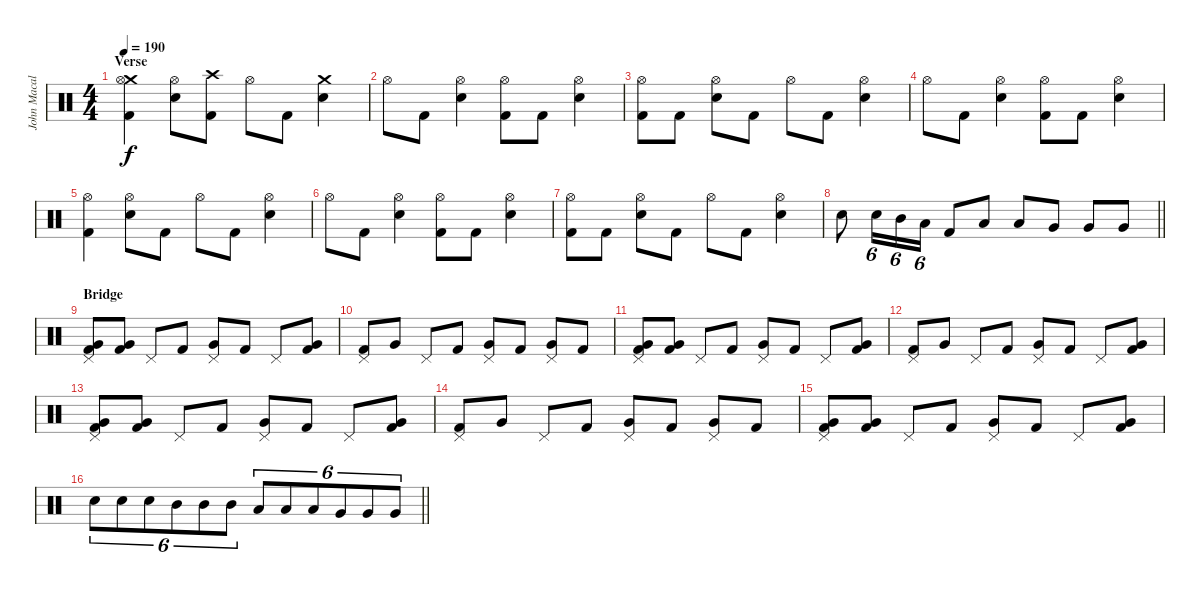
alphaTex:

\track ("John Macaluso" "John Macal") {instrument percussion}
\staff {score}
\articulation defaults
\ts (4 4)
\section ("" "Verse")
\tempo 190
\clef neutral
\ks c
("Crash medium (hit)" "Hi-Hat (open)" "Kick (hit) 2").4{dy f} ("Hi-Hat (open)" "Snare (hit) 2").8 ("Crash high (hit)" "Kick (hit) 2").8 "Hi-Hat (open)".8 "Kick (hit) 2".8 ("Crash medium (hit)" "Snare (hit) 2").4 |
"Hi-Hat (open)".8 "Kick (hit) 2".8 ("Hi-Hat (open)" "Snare (hit) 2").4 ("Hi-Hat (open)" "Kick (hit) 2").8 "Kick (hit) 2".8 ("Hi-Hat (open)" "Snare (hit) 2").4 |
("Hi-Hat (open)" "Kick (hit) 2").8 "Kick (hit) 2".8 ("Hi-Hat (open)" "Snare (hit) 2").8 "Kick (hit) 2".8 "Hi-Hat (open)".8 "Kick (hit) 2".8 ("Hi-Hat (open)" "Snare (hit) 2").4 |
"Hi-Hat (open)".8 "Kick (hit) 2".8 ("Hi-Hat (open)" "Snare (hit) 2").4 ("Hi-Hat (open)" "Kick (hit) 2").8 "Kick (hit) 2".8 ("Hi-Hat (open)" "Snare (hit) 2").4 |
("Hi-Hat (open)" "Kick (hit) 2").4 ("Hi-Hat (open)" "Snare (hit) 2").8 "Kick (hit) 2".8 "Hi-Hat (open)".8 "Kick (hit) 2".8 ("Hi-Hat (open)" "Snare (hit) 2").4 |
"Hi-Hat (open)".8 "Kick (hit) 2".8 ("Hi-Hat (open)" "Snare (hit) 2").4 ("Hi-Hat (open)" "Kick (hit) 2").8 "Kick (hit) 2".8 ("Hi-Hat (open)" "Snare (hit) 2").4 |
("Hi-Hat (open)" "Kick (hit) 2").8 "Kick (hit) 2".8 ("Hi-Hat (open)" "Snare (hit) 2").8 "Kick (hit) 2".8 "Hi-Hat (open)".8 "Kick (hit) 2".8 ("Hi-Hat (open)" "Snare (hit) 2").4 |
\barLineRight lightlight "Snare (hit) 2".8 "Snare (hit) 2".16{tu (6 4)} "Mid Tom (hit)".16{tu (6 4)} "Low Tom (hit)".16{tu (6 4)} "Kick (hit) 2".8 "Low Tom (hit)".8 "Low Tom (hit)".8 "Very Low Tom (hit)".8 "Very Low Tom (hit)".8 "Very Low Tom (hit)".8
|
\section ("" "Bridge")
("Pedal Hi-Hat (hit)" "Very Low Tom (hit)" "Kick (hit) 2").8 ("Very Low Tom (hit)" "Kick (hit) 2").8 "Pedal Hi-Hat (hit)".8 "Kick (hit) 2".8 ("Pedal Hi-Hat (hit)" "Very Low Tom (hit)").8 "Kick (hit) 2".8 "Pedal Hi-Hat (hit)".8 ("Very Low Tom (hit)" "Kick (hit) 2").8 |
("Pedal Hi-Hat (hit)" "Kick (hit) 2").8 "Very Low Tom (hit)".8 "Pedal Hi-Hat (hit)".8 "Kick (hit) 2".8 ("Pedal Hi-Hat (hit)" "Very Low Tom (hit)").8 "Kick (hit) 2".8 ("Pedal Hi-Hat (hit)" "Very Low Tom (hit)").8 "Kick (hit) 2".8 |
("Pedal Hi-Hat (hit)" "Very Low Tom (hit)" "Kick (hit) 2").8 ("Very Low Tom (hit)" "Kick (hit) 2").8 "Pedal Hi-Hat (hit)".8 "Kick (hit) 2".8 ("Pedal Hi-Hat (hit)" "Very Low Tom (hit)").8 "Kick (hit) 2".8 "Pedal Hi-Hat (hit)".8 ("Very Low Tom (hit)" "Kick (hit) 2").8 |
("Pedal Hi-Hat (hit)" "Kick (hit) 2").8 "Very Low Tom (hit)".8 "Pedal Hi-Hat (hit)".8 "Kick (hit) 2".8 ("Pedal Hi-Hat (hit)" "Very Low Tom (hit)").8 "Kick (hit) 2".8 "Pedal Hi-Hat (hit)".8 ("Very Low Tom (hit)" "Kick (hit) 2").8 |
("Pedal Hi-Hat (hit)" "Very Low Tom (hit)" "Kick (hit) 2").8 ("Very Low Tom (hit)" "Kick (hit) 2").8 "Pedal Hi-Hat (hit)".8 "Kick (hit) 2".8 ("Pedal Hi-Hat (hit)" "Very Low Tom (hit)").8 "Kick (hit) 2".8 "Pedal Hi-Hat (hit)".8 ("Very Low Tom (hit)" "Kick (hit) 2").8 |
("Pedal Hi-Hat (hit)" "Kick (hit) 2").8 "Very Low Tom (hit)".8 "Pedal Hi-Hat (hit)".8 "Kick (hit) 2".8 ("Pedal Hi-Hat (hit)" "Very Low Tom (hit)").8 "Kick (hit) 2".8 ("Pedal Hi-Hat (hit)" "Very Low Tom (hit)").8 "Kick (hit) 2".8 |
("Pedal Hi-Hat (hit)" "Very Low Tom (hit)" "Kick (hit) 2").8 ("Very Low Tom (hit)" "Kick (hit) 2").8 "Pedal Hi-Hat (hit)".8 "Kick (hit) 2".8 ("Pedal Hi-Hat (hit)" "Very Low Tom (hit)").8 "Kick (hit) 2".8 "Pedal Hi-Hat (hit)".8 ("Very Low Tom (hit)" "Kick (hit) 2").8 |
\barLineRight lightlight "Snare (hit) 2".8{tu (6 4)} "Snare (hit) 2".8{tu (6 4)} "Snare (hit) 2".8{tu (6 4)} "Mid Tom (hit)".8{tu (6 4)} "Mid Tom (hit)".8{tu (6 4)} "Mid Tom (hit)".8{tu (6 4)} "Low Tom (hit)".8{tu (6 4)} "Low Tom (hit)".8{tu (6 4)} "Low Tom (hit)".8{tu (6 4)} "Very Low Tom (hit)".8{tu (6 4)} "Very Low Tom (hit)".8{tu (6 4)} "Very Low Tom (hit)".8{tu (6 4)}
